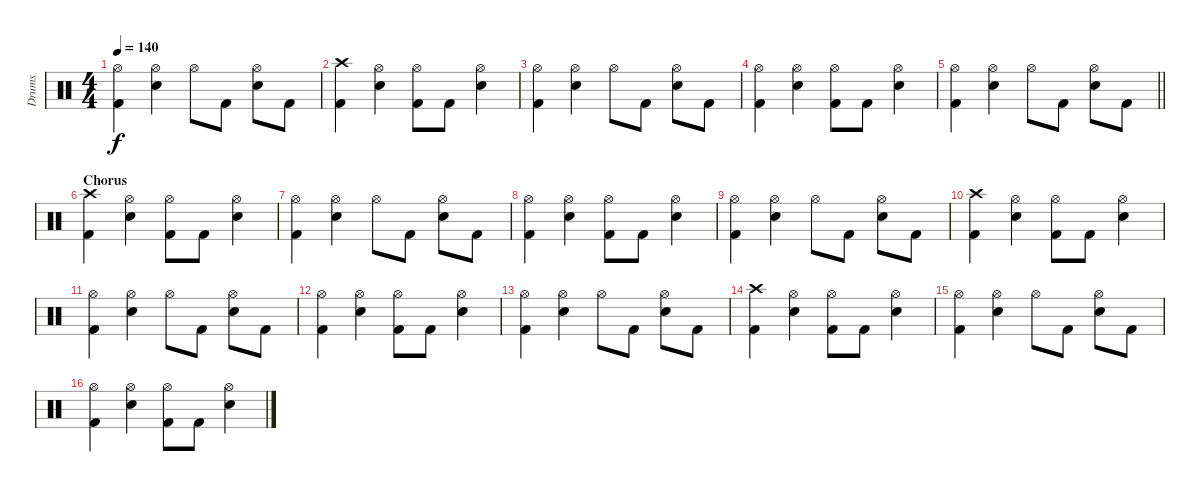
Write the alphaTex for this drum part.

\track ("Drums" "Drums") {instrument percussion}
\staff {score}
\articulation defaults
\ts (4 4)
\tempo 140
\clef neutral
\ks c
("Hi-Hat (open)" "Kick (hit) 2").4{dy f} ("Hi-Hat (open)" "Electric Snare (hit)").4 "Hi-Hat (open)".8 "Kick (hit) 2".8 ("Hi-Hat (open)" "Electric Snare (hit)").8 "Kick (hit) 2".8 |
("Crash high (hit)" "Kick (hit) 2").4 ("Hi-Hat (open)" "Electric Snare (hit)").4 ("Hi-Hat (open)" "Kick (hit) 2").8 "Kick (hit) 2".8 ("Hi-Hat (open)" "Electric Snare (hit)").4 |
("Hi-Hat (open)" "Kick (hit) 2").4 ("Hi-Hat (open)" "Electric Snare (hit)").4 "Hi-Hat (open)".8 "Kick (hit) 2".8 ("Hi-Hat (open)" "Electric Snare (hit)").8 "Kick (hit) 2".8 |
("Hi-Hat (open)" "Kick (hit) 2").4 ("Hi-Hat (open)" "Electric Snare (hit)").4 ("Hi-Hat (open)" "Kick (hit) 2").8 "Kick (hit) 2".8 ("Hi-Hat (open)" "Electric Snare (hit)").4 |
\barLineRight lightlight
("Hi-Hat (open)" "Kick (hit) 2").4 ("Hi-Hat (open)" "Electric Snare (hit)").4 "Hi-Hat (open)".8 "Kick (hit) 2".8 ("Hi-Hat (open)" "Electric Snare (hit)").8 "Kick (hit) 2".8 |
\section ("" "Chorus")
("Crash high (hit)" "Kick (hit) 2").4 ("Hi-Hat (open)" "Electric Snare (hit)").4 ("Hi-Hat (open)" "Kick (hit) 2").8 "Kick (hit) 2".8 ("Hi-Hat (open)" "Electric Snare (hit)").4 |
("Hi-Hat (open)" "Kick (hit) 2").4 ("Hi-Hat (open)" "Electric Snare (hit)").4 "Hi-Hat (open)".8 "Kick (hit) 2".8 ("Hi-Hat (open)" "Electric Snare (hit)").8 "Kick (hit) 2".8 |
("Hi-Hat (open)" "Kick (hit) 2").4 ("Hi-Hat (open)" "Electric Snare (hit)").4 ("Hi-Hat (open)" "Kick (hit) 2").8 "Kick (hit) 2".8 ("Hi-Hat (open)" "Electric Snare (hit)").4 |
("Hi-Hat (open)" "Kick (hit) 2").4 ("Hi-Hat (open)" "Electric Snare (hit)").4 "Hi-Hat (open)".8 "Kick (hit) 2".8 ("Hi-Hat (open)" "Electric Snare (hit)").8 "Kick (hit) 2".8 |
("Crash high (hit)" "Kick (hit) 2").4 ("Hi-Hat (open)" "Electric Snare (hit)").4 ("Hi-Hat (open)" "Kick (hit) 2").8 "Kick (hit) 2".8 ("Hi-Hat (open)" "Electric Snare (hit)").4 |
("Hi-Hat (open)" "Kick (hit) 2").4 ("Hi-Hat (open)" "Electric Snare (hit)").4 "Hi-Hat (open)".8 "Kick (hit) 2".8 ("Hi-Hat (open)" "Electric Snare (hit)").8 "Kick (hit) 2".8 |
("Hi-Hat (open)" "Kick (hit) 2").4 ("Hi-Hat (open)" "Electric Snare (hit)").4 ("Hi-Hat (open)" "Kick (hit) 2").8 "Kick (hit) 2".8 ("Hi-Hat (open)" "Electric Snare (hit)").4 |
("Hi-Hat (open)" "Kick (hit) 2").4 ("Hi-Hat (open)" "Electric Snare (hit)").4 "Hi-Hat (open)".8 "Kick (hit) 2".8 ("Hi-Hat (open)" "Electric Snare (hit)").8 "Kick (hit) 2".8 |
("Crash high (hit)" "Kick (hit) 2").4 ("Hi-Hat (open)" "Electric Snare (hit)").4 ("Hi-Hat (open)" "Kick (hit) 2").8 "Kick (hit) 2".8 ("Hi-Hat (open)" "Electric Snare (hit)").4 |
("Hi-Hat (open)" "Kick (hit) 2").4 ("Hi-Hat (open)" "Electric Snare (hit)").4 "Hi-Hat (open)".8 "Kick (hit) 2".8 ("Hi-Hat (open)" "Electric Snare (hit)").8 "Kick (hit) 2".8 |
("Hi-Hat (open)" "Kick (hit) 2").4 ("Hi-Hat (open)" "Electric Snare (hit)").4 ("Hi-Hat (open)" "Kick (hit) 2").8 "Kick (hit) 2".8 ("Hi-Hat (open)" "Electric Snare (hit)").4
